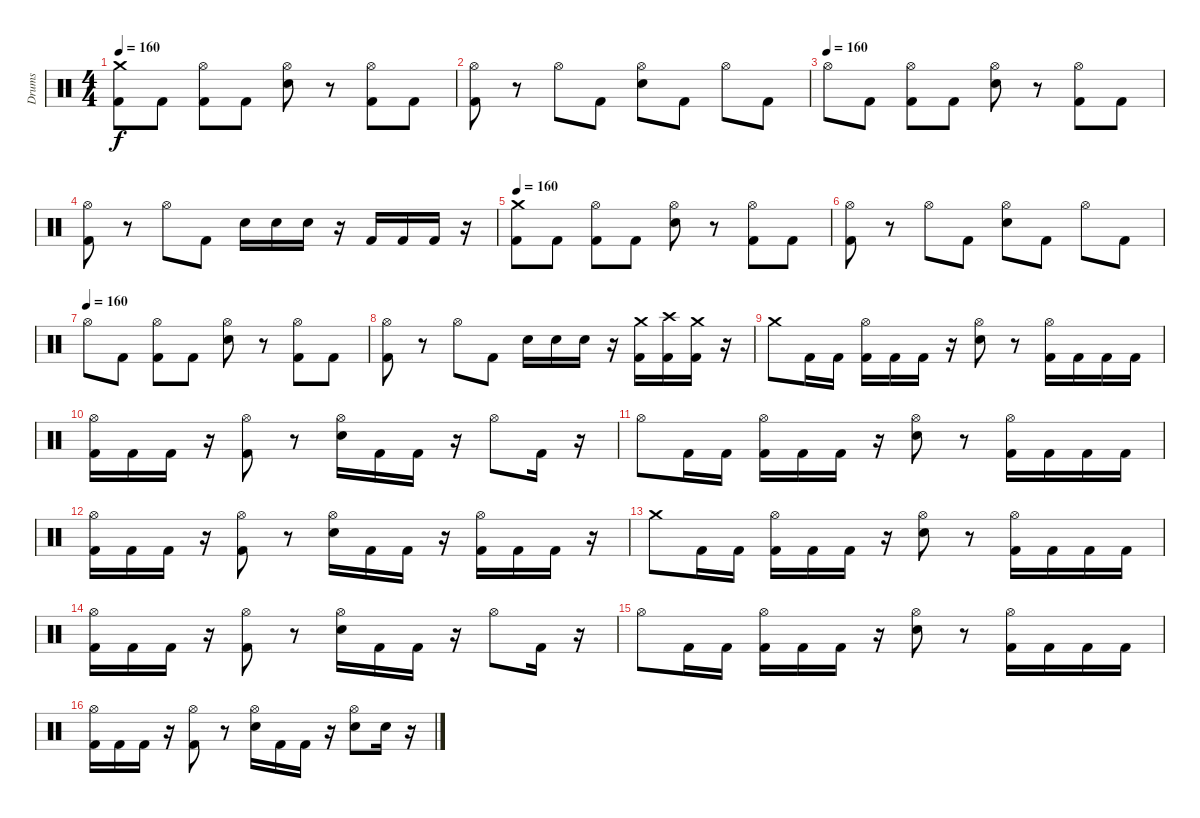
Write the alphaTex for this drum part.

\track ("Drums" "Drums") {instrument percussion}
\staff {score}
\articulation defaults
\ts (4 4)
\tempo 160
\clef neutral
\ks c
("Kick (hit) 2" "Crash medium (hit)").8{dy f} "Kick (hit) 2".8 ("Kick (hit) 2" "Hi-Hat (open)").8 "Kick (hit) 2".8 ("Electric Snare (hit)" "Hi-Hat (open)").8 r.8 ("Kick (hit) 2" "Hi-Hat (open)").8 "Kick (hit) 2".8 |
("Kick (hit) 2" "Hi-Hat (open)").8 r.8 "Hi-Hat (open)".8 "Kick (hit) 2".8 ("Electric Snare (hit)" "Hi-Hat (open)").8 "Kick (hit) 2".8 "Hi-Hat (open)".8 "Kick (hit) 2".8 |
\tempo (160)
"Hi-Hat (open)".8 "Kick (hit) 2".8 ("Kick (hit) 2" "Hi-Hat (open)").8 "Kick (hit) 2".8 ("Electric Snare (hit)" "Hi-Hat (open)").8 r.8 ("Kick (hit) 2" "Hi-Hat (open)").8 "Kick (hit) 2".8 |
("Kick (hit) 2" "Hi-Hat (open)").8 r.8 "Hi-Hat (open)".8 "Kick (hit) 2".8 "Electric Snare (hit)".16 "Electric Snare (hit)".16 "Electric Snare (hit)".16 r.16 "Kick (hit) 2".16 "Kick (hit) 2".16 "Kick (hit) 2".16 r.16 |
\tempo 160
("Kick (hit) 2" "Crash medium (hit)").8 "Kick (hit) 2".8 ("Kick (hit) 2" "Hi-Hat (open)").8 "Kick (hit) 2".8 ("Electric Snare (hit)" "Hi-Hat (open)").8 r.8 ("Kick (hit) 2" "Hi-Hat (open)").8 "Kick (hit) 2".8 |
("Kick (hit) 2" "Hi-Hat (open)").8 r.8 "Hi-Hat (open)".8 "Kick (hit) 2".8 ("Electric Snare (hit)" "Hi-Hat (open)").8 "Kick (hit) 2".8 "Hi-Hat (open)".8 "Kick (hit) 2".8 |
\tempo (160)
"Hi-Hat (open)".8 "Kick (hit) 2".8 ("Kick (hit) 2" "Hi-Hat (open)").8 "Kick (hit) 2".8 ("Electric Snare (hit)" "Hi-Hat (open)").8 r.8 ("Kick (hit) 2" "Hi-Hat (open)").8 "Kick (hit) 2".8 |
("Kick (hit) 2" "Hi-Hat (open)").8 r.8 "Hi-Hat (open)".8 "Kick (hit) 2".8 "Electric Snare (hit)".16 "Electric Snare (hit)".16 "Electric Snare (hit)".16 r.16 ("Crash medium (hit)" "Kick (hit) 2").16 ("Crash high (hit)" "Kick (hit) 2").16 ("Crash medium (hit)" "Kick (hit) 2").16 r.16 |
"Crash medium (hit)".8 "Kick (hit) 2".16 "Kick (hit) 2".16 ("Kick (hit) 2" "Hi-Hat (open)").16 "Kick (hit) 2".16 "Kick (hit) 2".16 r.16 ("Electric Snare (hit)" "Hi-Hat (open)").8 r.8 ("Kick (hit) 2" "Hi-Hat (open)").16 "Kick (hit) 2".16 "Kick (hit) 2".16 "Kick (hit) 2".16 |
("Kick (hit) 2" "Hi-Hat (open)").16 "Kick (hit) 2".16 "Kick (hit) 2".16 r.16 ("Kick (hit) 2" "Hi-Hat (open)").8 r.8 ("Electric Snare (hit)" "Hi-Hat (open)").16 "Kick (hit) 2".16 "Kick (hit) 2".16 r.16 "Hi-Hat (open)".8 "Kick (hit) 2".16 r.16 |
"Hi-Hat (open)".8 "Kick (hit) 2".16 "Kick (hit) 2".16 ("Kick (hit) 2" "Hi-Hat (open)").16 "Kick (hit) 2".16 "Kick (hit) 2".16 r.16 ("Electric Snare (hit)" "Hi-Hat (open)").8 r.8 ("Kick (hit) 2" "Hi-Hat (open)").16 "Kick (hit) 2".16 "Kick (hit) 2".16 "Kick (hit) 2".16 |
("Kick (hit) 2" "Hi-Hat (open)").16 "Kick (hit) 2".16 "Kick (hit) 2".16 r.16 ("Kick (hit) 2" "Hi-Hat (open)").8 r.8 ("Electric Snare (hit)" "Hi-Hat (open)").16 "Kick (hit) 2".16 "Kick (hit) 2".16 r.16 ("Kick (hit) 2" "Hi-Hat (open)").16 "Kick (hit) 2".16 "Kick (hit) 2".16 r.16 |
"Crash medium (hit)".8 "Kick (hit) 2".16 "Kick (hit) 2".16 ("Kick (hit) 2" "Hi-Hat (open)").16 "Kick (hit) 2".16 "Kick (hit) 2".16 r.16 ("Electric Snare (hit)" "Hi-Hat (open)").8 r.8 ("Kick (hit) 2" "Hi-Hat (open)").16 "Kick (hit) 2".16 "Kick (hit) 2".16 "Kick (hit) 2".16 |
("Kick (hit) 2" "Hi-Hat (open)").16 "Kick (hit) 2".16 "Kick (hit) 2".16 r.16 ("Kick (hit) 2" "Hi-Hat (open)").8 r.8 ("Electric Snare (hit)" "Hi-Hat (open)").16 "Kick (hit) 2".16 "Kick (hit) 2".16 r.16 "Hi-Hat (open)".8 "Kick (hit) 2".16 r.16 |
"Hi-Hat (open)".8 "Kick (hit) 2".16 "Kick (hit) 2".16 ("Kick (hit) 2" "Hi-Hat (open)").16 "Kick (hit) 2".16 "Kick (hit) 2".16 r.16 ("Electric Snare (hit)" "Hi-Hat (open)").8 r.8 ("Kick (hit) 2" "Hi-Hat (open)").16 "Kick (hit) 2".16 "Kick (hit) 2".16 "Kick (hit) 2".16 |
("Kick (hit) 2" "Hi-Hat (open)").16 "Kick (hit) 2".16 "Kick (hit) 2".16 r.16 ("Kick (hit) 2" "Hi-Hat (open)").8 r.8 ("Electric Snare (hit)" "Hi-Hat (open)").16 "Kick (hit) 2".16 "Kick (hit) 2".16 r.16 ("Electric Snare (hit)" "Hi-Hat (open)").8 "Electric Snare (hit)".16 r.16
